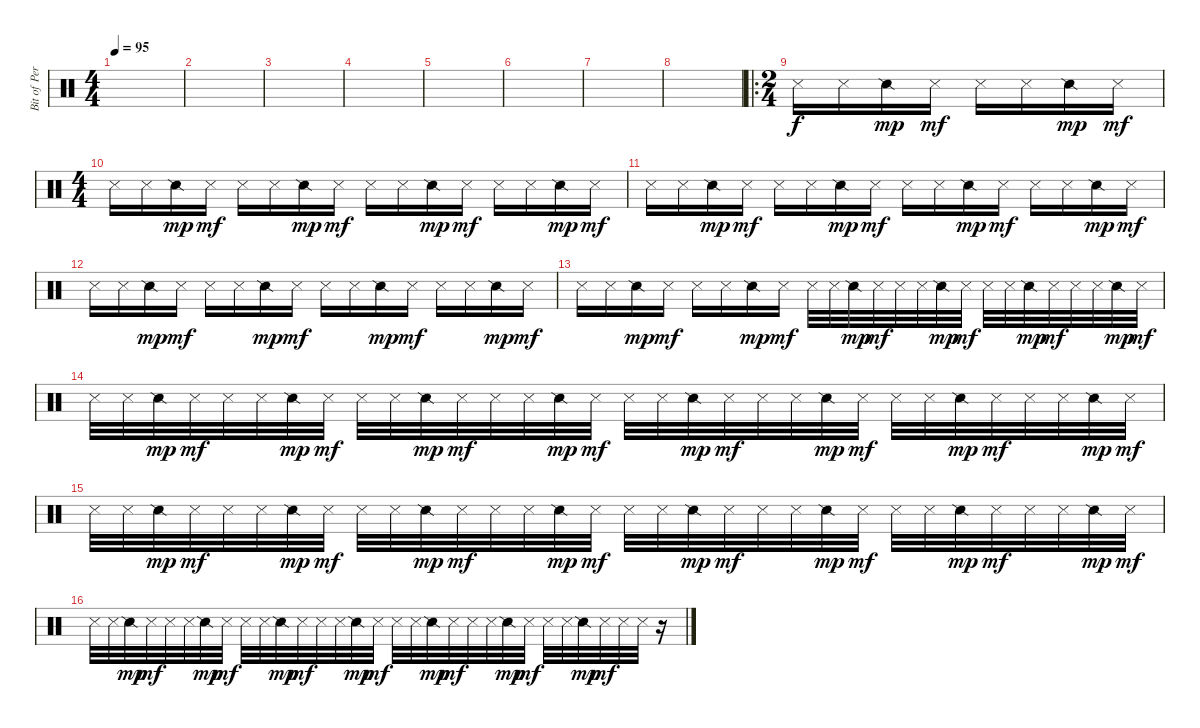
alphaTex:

\track ("Bit of Percussion" "Bit of Per") {instrument percussion}
\staff {score}
\articulation defaults
\ts (4 4)
\tempo 95
\tempo 60
\tempo 95
\clef neutral
\ks c
|
|
|
|
|
|
|
|
\ro
\ts (2 4)
"Metronome (hit)".16 "Metronome (hit)".16 "Snare (side stick) 2".16{dy mp} "Metronome (hit)".16{dy mf} "Metronome (hit)".16 "Metronome (hit)".16 "Snare (side stick) 2".16{dy mp} "Metronome (hit)".16{dy mf} |
\ts (4 4)
"Metronome (hit)".16 "Metronome (hit)".16 "Snare (side stick) 2".16{dy mp} "Metronome (hit)".16{dy mf} "Metronome (hit)".16 "Metronome (hit)".16 "Snare (side stick) 2".16{dy mp} "Metronome (hit)".16{dy mf} "Metronome (hit)".16 "Metronome (hit)".16 "Snare (side stick) 2".16{dy mp} "Metronome (hit)".16{dy mf} "Metronome (hit)".16 "Metronome (hit)".16 "Snare (side stick) 2".16{dy mp} "Metronome (hit)".16{dy mf} |
"Metronome (hit)".16 "Metronome (hit)".16 "Snare (side stick) 2".16{dy mp} "Metronome (hit)".16{dy mf} "Metronome (hit)".16 "Metronome (hit)".16 "Snare (side stick) 2".16{dy mp} "Metronome (hit)".16{dy mf} "Metronome (hit)".16 "Metronome (hit)".16 "Snare (side stick) 2".16{dy mp} "Metronome (hit)".16{dy mf} "Metronome (hit)".16 "Metronome (hit)".16 "Snare (side stick) 2".16{dy mp} "Metronome (hit)".16{dy mf} |
"Metronome (hit)".16 "Metronome (hit)".16 "Snare (side stick) 2".16{dy mp} "Metronome (hit)".16{dy mf} "Metronome (hit)".16 "Metronome (hit)".16 "Snare (side stick) 2".16{dy mp} "Metronome (hit)".16{dy mf} "Metronome (hit)".16 "Metronome (hit)".16 "Snare (side stick) 2".16{dy mp} "Metronome (hit)".16{dy mf} "Metronome (hit)".16 "Metronome (hit)".16 "Snare (side stick) 2".16{dy mp} "Metronome (hit)".16{dy mf} |
"Metronome (hit)".16 "Metronome (hit)".16 "Snare (side stick) 2".16{dy mp} "Metronome (hit)".16{dy mf} "Metronome (hit)".16 "Metronome (hit)".16 "Snare (side stick) 2".16{dy mp} "Metronome (hit)".16{dy mf} "Metronome (hit)".32 "Metronome (hit)".32 "Snare (side stick) 2".32{dy mp} "Metronome (hit)".32{dy mf} "Metronome (hit)".32 "Metronome (hit)".32 "Snare (side stick) 2".32{dy mp} "Metronome (hit)".32{dy mf} "Metronome (hit)".32 "Metronome (hit)".32 "Snare (side stick) 2".32{dy mp} "Metronome (hit)".32{dy mf} "Metronome (hit)".32 "Metronome (hit)".32 "Snare (side stick) 2".32{dy mp} "Metronome (hit)".32{dy mf} |
"Metronome (hit)".32 "Metronome (hit)".32 "Snare (side stick) 2".32{dy mp} "Metronome (hit)".32{dy mf} "Metronome (hit)".32 "Metronome (hit)".32 "Snare (side stick) 2".32{dy mp} "Metronome (hit)".32{dy mf} "Metronome (hit)".32 "Metronome (hit)".32 "Snare (side stick) 2".32{dy mp} "Metronome (hit)".32{dy mf} "Metronome (hit)".32 "Metronome (hit)".32 "Snare (side stick) 2".32{dy mp} "Metronome (hit)".32{dy mf} "Metronome (hit)".32 "Metronome (hit)".32 "Snare (side stick) 2".32{dy mp} "Metronome (hit)".32{dy mf} "Metronome (hit)".32 "Metronome (hit)".32 "Snare (side stick) 2".32{dy mp} "Metronome (hit)".32{dy mf} "Metronome (hit)".32 "Metronome (hit)".32 "Snare (side stick) 2".32{dy mp} "Metronome (hit)".32{dy mf} "Metronome (hit)".32 "Metronome (hit)".32 "Snare (side stick) 2".32{dy mp} "Metronome (hit)".32{dy mf} |
"Metronome (hit)".32 "Metronome (hit)".32 "Snare (side stick) 2".32{dy mp} "Metronome (hit)".32{dy mf} "Metronome (hit)".32 "Metronome (hit)".32 "Snare (side stick) 2".32{dy mp} "Metronome (hit)".32{dy mf} "Metronome (hit)".32 "Metronome (hit)".32 "Snare (side stick) 2".32{dy mp} "Metronome (hit)".32{dy mf} "Metronome (hit)".32 "Metronome (hit)".32 "Snare (side stick) 2".32{dy mp} "Metronome (hit)".32{dy mf} "Metronome (hit)".32 "Metronome (hit)".32 "Snare (side stick) 2".32{dy mp} "Metronome (hit)".32{dy mf} "Metronome (hit)".32 "Metronome (hit)".32 "Snare (side stick) 2".32{dy mp} "Metronome (hit)".32{dy mf} "Metronome (hit)".32 "Metronome (hit)".32 "Snare (side stick) 2".32{dy mp} "Metronome (hit)".32{dy mf} "Metronome (hit)".32 "Metronome (hit)".32 "Snare (side stick) 2".32{dy mp} "Metronome (hit)".32{dy mf} |
"Metronome (hit)".32 "Metronome (hit)".32 "Snare (side stick) 2".32{dy mp} "Metronome (hit)".32{dy mf} "Metronome (hit)".32 "Metronome (hit)".32 "Snare (side stick) 2".32{dy mp} "Metronome (hit)".32{dy mf} "Metronome (hit)".32 "Metronome (hit)".32 "Snare (side stick) 2".32{dy mp} "Metronome (hit)".32{dy mf} "Metronome (hit)".32 "Metronome (hit)".32 "Snare (side stick) 2".32{dy mp} "Metronome (hit)".32{dy mf} "Metronome (hit)".32 "Metronome (hit)".32 "Snare (side stick) 2".32{dy mp} "Metronome (hit)".32{dy mf} "Metronome (hit)".32 "Metronome (hit)".32 "Snare (side stick) 2".32{dy mp} "Metronome (hit)".32{dy mf} "Metronome (hit)".32 "Metronome (hit)".32 "Snare (side stick) 2".32{dy mp} "Metronome (hit)".32{dy mf} "Metronome (hit)".32 "Metronome (hit)".32 r.16
